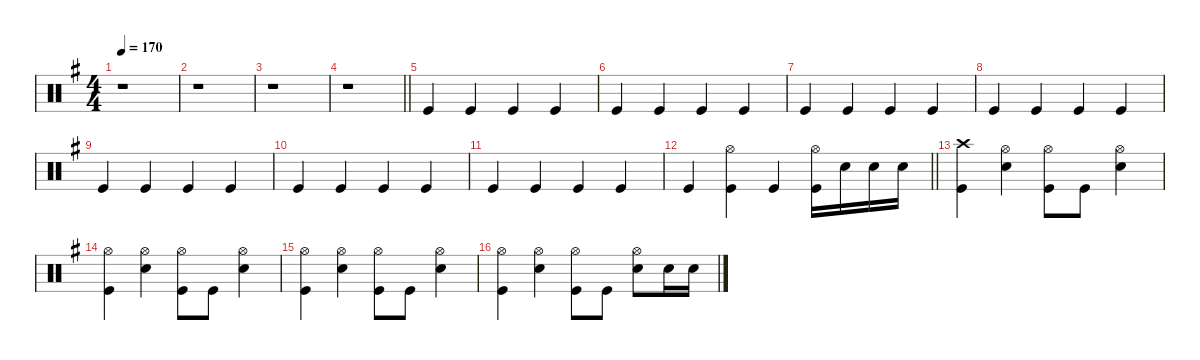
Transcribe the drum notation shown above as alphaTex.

\defaultSystemsLayout 4
\hideDynamics
\bracketExtendMode groupsimilarinstruments
\singleTrackTrackNamePolicy hidden
\multiTrackTrackNamePolicy hidden
\firstSystemTrackNameMode fullname
\firstSystemTrackNameOrientation horizontal
\otherSystemsTrackNameOrientation horizontal
\track ("Drums" "drm.") {instrument percussion}
\staff {score}
\articulation defaults
\ts (4 4)
\beaming (8 2 2 2 2)
\tempo 170
\clef neutral
\ks g
r.1{dy f beam Down} |
r.1{beam Down} |
r.1{beam Down} |
\barLineRight lightlight
r.1{beam Down} |
"Kick (hit)"{acc forcenatural}.4{beam Up} "Kick (hit)"{acc forcenatural}.4{beam Up} "Kick (hit)"{acc forcenatural}.4{beam Up} "Kick (hit)"{acc forcenatural}.4{beam Up} |
"Kick (hit)"{acc forcenatural}.4{beam Up} "Kick (hit)"{acc forcenatural}.4{beam Up} "Kick (hit)"{acc forcenatural}.4{beam Up} "Kick (hit)"{acc forcenatural}.4{beam Up} |
"Kick (hit)"{acc forcenatural}.4{beam Up} "Kick (hit)"{acc forcenatural}.4{beam Up} "Kick (hit)"{acc forcenatural}.4{beam Up} "Kick (hit)"{acc forcenatural}.4{beam Up} |
"Kick (hit)"{acc forcenatural}.4{beam Up} "Kick (hit)"{acc forcenatural}.4{beam Up} "Kick (hit)"{acc forcenatural}.4{beam Up} "Kick (hit)"{acc forcenatural}.4{beam Up} |
"Kick (hit)"{acc forcenatural}.4{beam Up} "Kick (hit)"{acc forcenatural}.4{beam Up} "Kick (hit)"{acc forcenatural}.4{beam Up} "Kick (hit)"{acc forcenatural}.4{beam Up} |
"Kick (hit)"{acc forcenatural}.4{beam Up} "Kick (hit)"{acc forcenatural}.4{beam Up} "Kick (hit)"{acc forcenatural}.4{beam Up} "Kick (hit)"{acc forcenatural}.4{beam Up} |
"Kick (hit)"{acc forcenatural}.4{beam Up} "Kick (hit)"{acc forcenatural}.4{beam Up} "Kick (hit)"{acc forcenatural}.4{beam Up} "Kick (hit)"{acc forcenatural}.4{beam Up} |
\barLineRight lightlight "Kick (hit)"{acc forcenatural}.4{beam Up}
("Hi-Hat (open)"{acc forcenatural} "Kick (hit)"{acc forcenatural}).4{beam Down} "Kick (hit)"{acc forcenatural}.4{beam Up} ("Hi-Hat (open)"{acc forcenatural} "Kick (hit)"{acc forcenatural}).16{beam Down} "Snare (hit) 2"{acc forcenatural}.16{beam Down} "Snare (hit) 2"{acc forcenatural}.16{beam Down} "Snare (hit) 2"{acc forcenatural}.16{beam Down} |
("Crash high (hit)"{acc forcenatural} "Kick (hit)"{acc forcenatural}).4{beam Down} ("Hi-Hat (open)"{acc forcenatural} "Snare (hit) 2"{acc forcenatural}).4{beam Down} ("Hi-Hat (open)"{acc forcenatural} "Kick (hit)"{acc forcenatural}).8{beam Down} "Kick (hit)"{acc forcenatural}.8{beam Down} ("Hi-Hat (open)"{acc forcenatural} "Snare (hit) 2"{acc forcenatural}).4{beam Down} |
("Hi-Hat (open)"{acc forcenatural} "Kick (hit)"{acc forcenatural}).4{beam Down} ("Hi-Hat (open)"{acc forcenatural} "Snare (hit) 2"{acc forcenatural}).4{beam Down} ("Hi-Hat (open)"{acc forcenatural} "Kick (hit)"{acc forcenatural}).8{beam Down} "Kick (hit)"{acc forcenatural}.8{beam Down} ("Hi-Hat (open)"{acc forcenatural} "Snare (hit) 2"{acc forcenatural}).4{beam Down} |
("Hi-Hat (open)"{acc forcenatural} "Kick (hit)"{acc forcenatural}).4{beam Down} ("Hi-Hat (open)"{acc forcenatural} "Snare (hit) 2"{acc forcenatural}).4{beam Down} ("Hi-Hat (open)"{acc forcenatural} "Kick (hit)"{acc forcenatural}).8{beam Down} "Kick (hit)"{acc forcenatural}.8{beam Down} ("Hi-Hat (open)"{acc forcenatural} "Snare (hit) 2"{acc forcenatural}).4{beam Down} |
("Hi-Hat (open)"{acc forcenatural} "Kick (hit)"{acc forcenatural}).4{beam Down} ("Hi-Hat (open)"{acc forcenatural} "Snare (hit) 2"{acc forcenatural}).4{beam Down} ("Hi-Hat (open)"{acc forcenatural} "Kick (hit)"{acc forcenatural}).8{beam Down} "Kick (hit)"{acc forcenatural}.8{beam Down} ("Hi-Hat (open)"{acc forcenatural} "Snare (hit) 2"{acc forcenatural}).8{beam Down} "Snare (hit) 2"{acc forcenatural}.16{beam Down} "Snare (hit) 2"{acc forcenatural}.16{beam Down}
